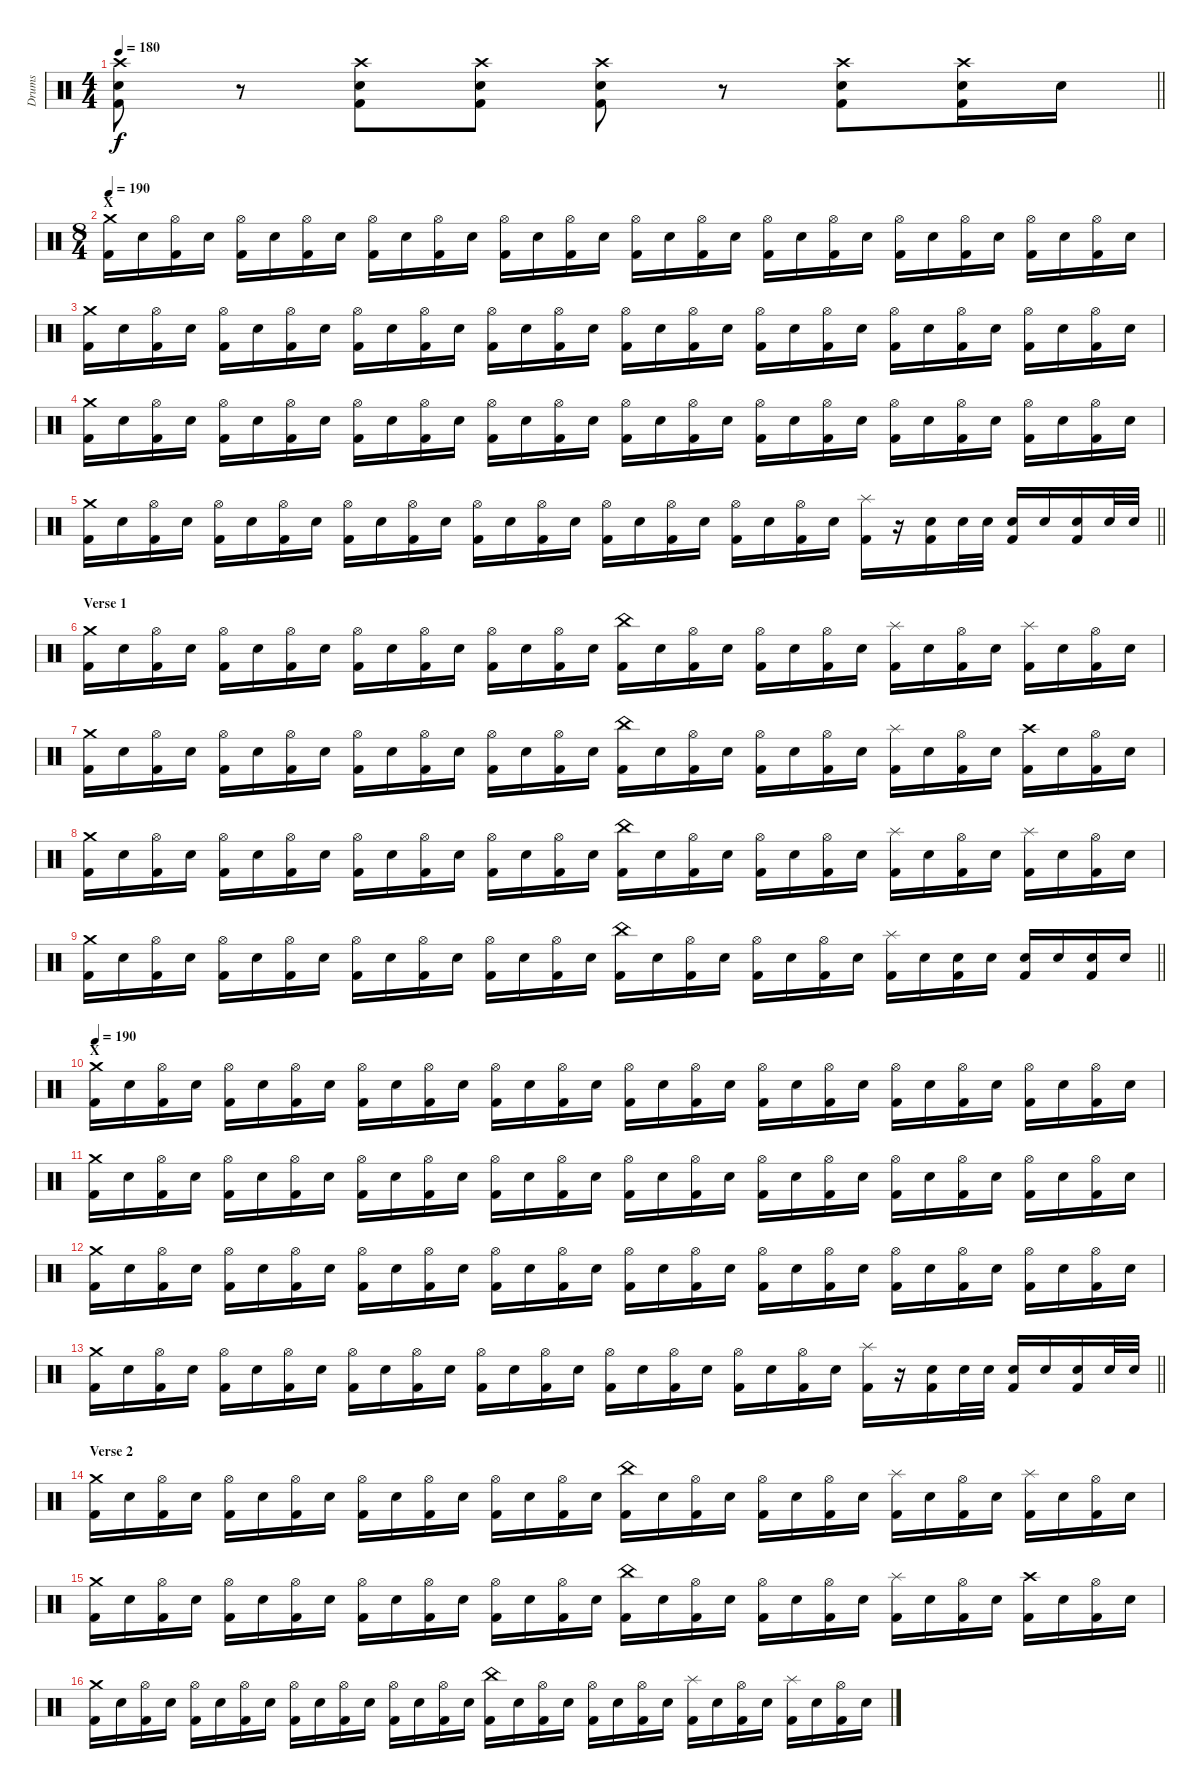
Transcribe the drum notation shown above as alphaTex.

\track ("Drums" "Drums") {instrument percussion}
\staff
\articulation defaults
\ts (4 4)
\tempo 180
\clef neutral
\barLineRight lightlight
\ks c
("Kick (hit) 2" "Electric Snare (hit)" "Crash high (hit)").8{dy f} r.8 ("Kick (hit) 2" "Electric Snare (hit)" "Crash high (hit)").8 ("Kick (hit) 2" "Electric Snare (hit)" "Crash high (hit)").8 ("Kick (hit) 2" "Electric Snare (hit)" "Crash high (hit)").8 r.8 ("Kick (hit) 2" "Electric Snare (hit)" "Crash high (hit)").8 ("Kick (hit) 2" "Electric Snare (hit)" "Crash high (hit)").16 "Electric Snare (hit)".16 |
\ts (8 4)
\section ("" "X")
\tempo 190
("Crash medium (hit)" "Kick (hit) 2").16 "Electric Snare (hit)".16 ("Hi-Hat (open)" "Kick (hit) 2").16 "Electric Snare (hit)".16 ("Hi-Hat (open)" "Kick (hit) 2").16 "Electric Snare (hit)".16 ("Hi-Hat (open)" "Kick (hit) 2").16 "Electric Snare (hit)".16 ("Hi-Hat (open)" "Kick (hit) 2").16 "Electric Snare (hit)".16 ("Hi-Hat (open)" "Kick (hit) 2").16 "Electric Snare (hit)".16 ("Hi-Hat (open)" "Kick (hit) 2").16 "Electric Snare (hit)".16 ("Hi-Hat (open)" "Kick (hit) 2").16 "Electric Snare (hit)".16 ("Hi-Hat (open)" "Kick (hit) 2").16 "Electric Snare (hit)".16 ("Hi-Hat (open)" "Kick (hit) 2").16 "Electric Snare (hit)".16 ("Hi-Hat (open)" "Kick (hit) 2").16 "Electric Snare (hit)".16 ("Hi-Hat (open)" "Kick (hit) 2").16 "Electric Snare (hit)".16 ("Hi-Hat (open)" "Kick (hit) 2").16 "Electric Snare (hit)".16 ("Hi-Hat (open)" "Kick (hit) 2").16 "Electric Snare (hit)".16 ("Hi-Hat (open)" "Kick (hit) 2").16 "Electric Snare (hit)".16 ("Hi-Hat (open)" "Kick (hit) 2").16 "Electric Snare (hit)".16 |
("Crash medium (hit)" "Kick (hit) 2").16 "Electric Snare (hit)".16 ("Hi-Hat (open)" "Kick (hit) 2").16 "Electric Snare (hit)".16 ("Hi-Hat (open)" "Kick (hit) 2").16 "Electric Snare (hit)".16 ("Hi-Hat (open)" "Kick (hit) 2").16 "Electric Snare (hit)".16 ("Hi-Hat (open)" "Kick (hit) 2").16 "Electric Snare (hit)".16 ("Hi-Hat (open)" "Kick (hit) 2").16 "Electric Snare (hit)".16 ("Hi-Hat (open)" "Kick (hit) 2").16 "Electric Snare (hit)".16 ("Hi-Hat (open)" "Kick (hit) 2").16 "Electric Snare (hit)".16 ("Hi-Hat (open)" "Kick (hit) 2").16 "Electric Snare (hit)".16 ("Hi-Hat (open)" "Kick (hit) 2").16 "Electric Snare (hit)".16 ("Hi-Hat (open)" "Kick (hit) 2").16 "Electric Snare (hit)".16 ("Hi-Hat (open)" "Kick (hit) 2").16 "Electric Snare (hit)".16 ("Hi-Hat (open)" "Kick (hit) 2").16 "Electric Snare (hit)".16 ("Hi-Hat (open)" "Kick (hit) 2").16 "Electric Snare (hit)".16 ("Hi-Hat (open)" "Kick (hit) 2").16 "Electric Snare (hit)".16 ("Hi-Hat (open)" "Kick (hit) 2").16 "Electric Snare (hit)".16 |
("Crash medium (hit)" "Kick (hit) 2").16 "Electric Snare (hit)".16 ("Hi-Hat (open)" "Kick (hit) 2").16 "Electric Snare (hit)".16 ("Hi-Hat (open)" "Kick (hit) 2").16 "Electric Snare (hit)".16 ("Hi-Hat (open)" "Kick (hit) 2").16 "Electric Snare (hit)".16 ("Hi-Hat (open)" "Kick (hit) 2").16 "Electric Snare (hit)".16 ("Hi-Hat (open)" "Kick (hit) 2").16 "Electric Snare (hit)".16 ("Hi-Hat (open)" "Kick (hit) 2").16 "Electric Snare (hit)".16 ("Hi-Hat (open)" "Kick (hit) 2").16 "Electric Snare (hit)".16 ("Hi-Hat (open)" "Kick (hit) 2").16 "Electric Snare (hit)".16 ("Hi-Hat (open)" "Kick (hit) 2").16 "Electric Snare (hit)".16 ("Hi-Hat (open)" "Kick (hit) 2").16 "Electric Snare (hit)".16 ("Hi-Hat (open)" "Kick (hit) 2").16 "Electric Snare (hit)".16 ("Hi-Hat (open)" "Kick (hit) 2").16 "Electric Snare (hit)".16 ("Hi-Hat (open)" "Kick (hit) 2").16 "Electric Snare (hit)".16 ("Hi-Hat (open)" "Kick (hit) 2").16 "Electric Snare (hit)".16 ("Hi-Hat (open)" "Kick (hit) 2").16 "Electric Snare (hit)".16 |
\barLineRight lightlight
("Crash medium (hit)" "Kick (hit) 2").16 "Electric Snare (hit)".16 ("Hi-Hat (open)" "Kick (hit) 2").16 "Electric Snare (hit)".16 ("Hi-Hat (open)" "Kick (hit) 2").16 "Electric Snare (hit)".16 ("Hi-Hat (open)" "Kick (hit) 2").16 "Electric Snare (hit)".16 ("Hi-Hat (open)" "Kick (hit) 2").16 "Electric Snare (hit)".16 ("Hi-Hat (open)" "Kick (hit) 2").16 "Electric Snare (hit)".16 ("Hi-Hat (open)" "Kick (hit) 2").16 "Electric Snare (hit)".16 ("Hi-Hat (open)" "Kick (hit) 2").16 "Electric Snare (hit)".16 ("Hi-Hat (open)" "Kick (hit) 2").16 "Electric Snare (hit)".16 ("Hi-Hat (open)" "Kick (hit) 2").16 "Electric Snare (hit)".16 ("Hi-Hat (open)" "Kick (hit) 2").16 "Electric Snare (hit)".16 ("Hi-Hat (open)" "Kick (hit) 2").16 "Electric Snare (hit)".16 ("Splash (hit)" "Kick (hit) 2").16 r.16 ("Electric Snare (hit)" "Kick (hit) 2").16 "Electric Snare (hit)".32 "Electric Snare (hit)".32 ("Electric Snare (hit)" "Kick (hit) 2").16 "Electric Snare (hit)".16 ("Electric Snare (hit)" "Kick (hit) 2").16 "Electric Snare (hit)".32 "Electric Snare (hit)".32 |
\section ("" "Verse 1")
("Crash medium (hit)" "Kick (hit) 2").16 "Electric Snare (hit)".16 ("Hi-Hat (open)" "Kick (hit) 2").16 "Electric Snare (hit)".16 ("Hi-Hat (open)" "Kick (hit) 2").16 "Electric Snare (hit)".16 ("Hi-Hat (open)" "Kick (hit) 2").16 "Electric Snare (hit)".16 ("Hi-Hat (open)" "Kick (hit) 2").16 "Electric Snare (hit)".16 ("Hi-Hat (open)" "Kick (hit) 2").16 "Electric Snare (hit)".16 ("Hi-Hat (open)" "Kick (hit) 2").16 "Electric Snare (hit)".16 ("Hi-Hat (open)" "Kick (hit) 2").16 "Electric Snare (hit)".16 ("China (hit)" "Kick (hit) 2").16 "Electric Snare (hit)".16 ("Hi-Hat (open)" "Kick (hit) 2").16 "Electric Snare (hit)".16 ("Hi-Hat (open)" "Kick (hit) 2").16 "Electric Snare (hit)".16 ("Hi-Hat (open)" "Kick (hit) 2").16 "Electric Snare (hit)".16 ("Splash (hit)" "Kick (hit) 2").16 "Electric Snare (hit)".16 ("Hi-Hat (open)" "Kick (hit) 2").16 "Electric Snare (hit)".16 ("Splash (hit)" "Kick (hit) 2").16 "Electric Snare (hit)".16 ("Hi-Hat (open)" "Kick (hit) 2").16 "Electric Snare (hit)".16 |
("Crash medium (hit)" "Kick (hit) 2").16 "Electric Snare (hit)".16 ("Hi-Hat (open)" "Kick (hit) 2").16 "Electric Snare (hit)".16 ("Hi-Hat (open)" "Kick (hit) 2").16 "Electric Snare (hit)".16 ("Hi-Hat (open)" "Kick (hit) 2").16 "Electric Snare (hit)".16 ("Hi-Hat (open)" "Kick (hit) 2").16 "Electric Snare (hit)".16 ("Hi-Hat (open)" "Kick (hit) 2").16 "Electric Snare (hit)".16 ("Hi-Hat (open)" "Kick (hit) 2").16 "Electric Snare (hit)".16 ("Hi-Hat (open)" "Kick (hit) 2").16 "Electric Snare (hit)".16 ("China (hit)" "Kick (hit) 2").16 "Electric Snare (hit)".16 ("Hi-Hat (open)" "Kick (hit) 2").16 "Electric Snare (hit)".16 ("Hi-Hat (open)" "Kick (hit) 2").16 "Electric Snare (hit)".16 ("Hi-Hat (open)" "Kick (hit) 2").16 "Electric Snare (hit)".16 ("Splash (hit)" "Kick (hit) 2").16 "Electric Snare (hit)".16 ("Hi-Hat (open)" "Kick (hit) 2").16 "Electric Snare (hit)".16 ("Crash high (hit)" "Kick (hit) 2").16 "Electric Snare (hit)".16 ("Hi-Hat (open)" "Kick (hit) 2").16 "Electric Snare (hit)".16 |
("Crash medium (hit)" "Kick (hit) 2").16 "Electric Snare (hit)".16 ("Hi-Hat (open)" "Kick (hit) 2").16 "Electric Snare (hit)".16 ("Hi-Hat (open)" "Kick (hit) 2").16 "Electric Snare (hit)".16 ("Hi-Hat (open)" "Kick (hit) 2").16 "Electric Snare (hit)".16 ("Hi-Hat (open)" "Kick (hit) 2").16 "Electric Snare (hit)".16 ("Hi-Hat (open)" "Kick (hit) 2").16 "Electric Snare (hit)".16 ("Hi-Hat (open)" "Kick (hit) 2").16 "Electric Snare (hit)".16 ("Hi-Hat (open)" "Kick (hit) 2").16 "Electric Snare (hit)".16 ("China (hit)" "Kick (hit) 2").16 "Electric Snare (hit)".16 ("Hi-Hat (open)" "Kick (hit) 2").16 "Electric Snare (hit)".16 ("Hi-Hat (open)" "Kick (hit) 2").16 "Electric Snare (hit)".16 ("Hi-Hat (open)" "Kick (hit) 2").16 "Electric Snare (hit)".16 ("Splash (hit)" "Kick (hit) 2").16 "Electric Snare (hit)".16 ("Hi-Hat (open)" "Kick (hit) 2").16 "Electric Snare (hit)".16 ("Splash (hit)" "Kick (hit) 2").16 "Electric Snare (hit)".16 ("Hi-Hat (open)" "Kick (hit) 2").16 "Electric Snare (hit)".16 |
\barLineRight lightlight
("Crash medium (hit)" "Kick (hit) 2").16 "Electric Snare (hit)".16 ("Hi-Hat (open)" "Kick (hit) 2").16 "Electric Snare (hit)".16 ("Hi-Hat (open)" "Kick (hit) 2").16 "Electric Snare (hit)".16 ("Hi-Hat (open)" "Kick (hit) 2").16 "Electric Snare (hit)".16 ("Hi-Hat (open)" "Kick (hit) 2").16 "Electric Snare (hit)".16 ("Hi-Hat (open)" "Kick (hit) 2").16 "Electric Snare (hit)".16 ("Hi-Hat (open)" "Kick (hit) 2").16 "Electric Snare (hit)".16 ("Hi-Hat (open)" "Kick (hit) 2").16 "Electric Snare (hit)".16 ("China (hit)" "Kick (hit) 2").16 "Electric Snare (hit)".16 ("Hi-Hat (open)" "Kick (hit) 2").16 "Electric Snare (hit)".16 ("Hi-Hat (open)" "Kick (hit) 2").16 "Electric Snare (hit)".16 ("Hi-Hat (open)" "Kick (hit) 2").16 "Electric Snare (hit)".16 ("Splash (hit)" "Kick (hit) 2").16 "Electric Snare (hit)".16 ("Electric Snare (hit)" "Kick (hit) 2").16 "Electric Snare (hit)".16 ("Electric Snare (hit)" "Kick (hit) 2").16 "Electric Snare (hit)".16 ("Electric Snare (hit)" "Kick (hit) 2").16 "Electric Snare (hit)".16 |
\section ("" "X")
\tempo 190
("Crash medium (hit)" "Kick (hit) 2").16 "Electric Snare (hit)".16 ("Hi-Hat (open)" "Kick (hit) 2").16 "Electric Snare (hit)".16 ("Hi-Hat (open)" "Kick (hit) 2").16 "Electric Snare (hit)".16 ("Hi-Hat (open)" "Kick (hit) 2").16 "Electric Snare (hit)".16 ("Hi-Hat (open)" "Kick (hit) 2").16 "Electric Snare (hit)".16 ("Hi-Hat (open)" "Kick (hit) 2").16 "Electric Snare (hit)".16 ("Hi-Hat (open)" "Kick (hit) 2").16 "Electric Snare (hit)".16 ("Hi-Hat (open)" "Kick (hit) 2").16 "Electric Snare (hit)".16 ("Hi-Hat (open)" "Kick (hit) 2").16 "Electric Snare (hit)".16 ("Hi-Hat (open)" "Kick (hit) 2").16 "Electric Snare (hit)".16 ("Hi-Hat (open)" "Kick (hit) 2").16 "Electric Snare (hit)".16 ("Hi-Hat (open)" "Kick (hit) 2").16 "Electric Snare (hit)".16 ("Hi-Hat (open)" "Kick (hit) 2").16 "Electric Snare (hit)".16 ("Hi-Hat (open)" "Kick (hit) 2").16 "Electric Snare (hit)".16 ("Hi-Hat (open)" "Kick (hit) 2").16 "Electric Snare (hit)".16 ("Hi-Hat (open)" "Kick (hit) 2").16 "Electric Snare (hit)".16 |
("Crash medium (hit)" "Kick (hit) 2").16 "Electric Snare (hit)".16 ("Hi-Hat (open)" "Kick (hit) 2").16 "Electric Snare (hit)".16 ("Hi-Hat (open)" "Kick (hit) 2").16 "Electric Snare (hit)".16 ("Hi-Hat (open)" "Kick (hit) 2").16 "Electric Snare (hit)".16 ("Hi-Hat (open)" "Kick (hit) 2").16 "Electric Snare (hit)".16 ("Hi-Hat (open)" "Kick (hit) 2").16 "Electric Snare (hit)".16 ("Hi-Hat (open)" "Kick (hit) 2").16 "Electric Snare (hit)".16 ("Hi-Hat (open)" "Kick (hit) 2").16 "Electric Snare (hit)".16 ("Hi-Hat (open)" "Kick (hit) 2").16 "Electric Snare (hit)".16 ("Hi-Hat (open)" "Kick (hit) 2").16 "Electric Snare (hit)".16 ("Hi-Hat (open)" "Kick (hit) 2").16 "Electric Snare (hit)".16 ("Hi-Hat (open)" "Kick (hit) 2").16 "Electric Snare (hit)".16 ("Hi-Hat (open)" "Kick (hit) 2").16 "Electric Snare (hit)".16 ("Hi-Hat (open)" "Kick (hit) 2").16 "Electric Snare (hit)".16 ("Hi-Hat (open)" "Kick (hit) 2").16 "Electric Snare (hit)".16 ("Hi-Hat (open)" "Kick (hit) 2").16 "Electric Snare (hit)".16 |
("Crash medium (hit)" "Kick (hit) 2").16 "Electric Snare (hit)".16 ("Hi-Hat (open)" "Kick (hit) 2").16 "Electric Snare (hit)".16 ("Hi-Hat (open)" "Kick (hit) 2").16 "Electric Snare (hit)".16 ("Hi-Hat (open)" "Kick (hit) 2").16 "Electric Snare (hit)".16 ("Hi-Hat (open)" "Kick (hit) 2").16 "Electric Snare (hit)".16 ("Hi-Hat (open)" "Kick (hit) 2").16 "Electric Snare (hit)".16 ("Hi-Hat (open)" "Kick (hit) 2").16 "Electric Snare (hit)".16 ("Hi-Hat (open)" "Kick (hit) 2").16 "Electric Snare (hit)".16 ("Hi-Hat (open)" "Kick (hit) 2").16 "Electric Snare (hit)".16 ("Hi-Hat (open)" "Kick (hit) 2").16 "Electric Snare (hit)".16 ("Hi-Hat (open)" "Kick (hit) 2").16 "Electric Snare (hit)".16 ("Hi-Hat (open)" "Kick (hit) 2").16 "Electric Snare (hit)".16 ("Hi-Hat (open)" "Kick (hit) 2").16 "Electric Snare (hit)".16 ("Hi-Hat (open)" "Kick (hit) 2").16 "Electric Snare (hit)".16 ("Hi-Hat (open)" "Kick (hit) 2").16 "Electric Snare (hit)".16 ("Hi-Hat (open)" "Kick (hit) 2").16 "Electric Snare (hit)".16 |
\barLineRight lightlight
("Crash medium (hit)" "Kick (hit) 2").16 "Electric Snare (hit)".16 ("Hi-Hat (open)" "Kick (hit) 2").16 "Electric Snare (hit)".16 ("Hi-Hat (open)" "Kick (hit) 2").16 "Electric Snare (hit)".16 ("Hi-Hat (open)" "Kick (hit) 2").16 "Electric Snare (hit)".16 ("Hi-Hat (open)" "Kick (hit) 2").16 "Electric Snare (hit)".16 ("Hi-Hat (open)" "Kick (hit) 2").16 "Electric Snare (hit)".16 ("Hi-Hat (open)" "Kick (hit) 2").16 "Electric Snare (hit)".16 ("Hi-Hat (open)" "Kick (hit) 2").16 "Electric Snare (hit)".16 ("Hi-Hat (open)" "Kick (hit) 2").16 "Electric Snare (hit)".16 ("Hi-Hat (open)" "Kick (hit) 2").16 "Electric Snare (hit)".16 ("Hi-Hat (open)" "Kick (hit) 2").16 "Electric Snare (hit)".16 ("Hi-Hat (open)" "Kick (hit) 2").16 "Electric Snare (hit)".16 ("Splash (hit)" "Kick (hit) 2").16 r.16 ("Electric Snare (hit)" "Kick (hit) 2").16 "Electric Snare (hit)".32 "Electric Snare (hit)".32 ("Electric Snare (hit)" "Kick (hit) 2").16 "Electric Snare (hit)".16 ("Electric Snare (hit)" "Kick (hit) 2").16 "Electric Snare (hit)".32 "Electric Snare (hit)".32 |
\section ("" "Verse 2")
("Crash medium (hit)" "Kick (hit) 2").16 "Electric Snare (hit)".16 ("Hi-Hat (open)" "Kick (hit) 2").16 "Electric Snare (hit)".16 ("Hi-Hat (open)" "Kick (hit) 2").16 "Electric Snare (hit)".16 ("Hi-Hat (open)" "Kick (hit) 2").16 "Electric Snare (hit)".16 ("Hi-Hat (open)" "Kick (hit) 2").16 "Electric Snare (hit)".16 ("Hi-Hat (open)" "Kick (hit) 2").16 "Electric Snare (hit)".16 ("Hi-Hat (open)" "Kick (hit) 2").16 "Electric Snare (hit)".16 ("Hi-Hat (open)" "Kick (hit) 2").16 "Electric Snare (hit)".16 ("China (hit)" "Kick (hit) 2").16 "Electric Snare (hit)".16 ("Hi-Hat (open)" "Kick (hit) 2").16 "Electric Snare (hit)".16 ("Hi-Hat (open)" "Kick (hit) 2").16 "Electric Snare (hit)".16 ("Hi-Hat (open)" "Kick (hit) 2").16 "Electric Snare (hit)".16 ("Splash (hit)" "Kick (hit) 2").16 "Electric Snare (hit)".16 ("Hi-Hat (open)" "Kick (hit) 2").16 "Electric Snare (hit)".16 ("Splash (hit)" "Kick (hit) 2").16 "Electric Snare (hit)".16 ("Hi-Hat (open)" "Kick (hit) 2").16 "Electric Snare (hit)".16 |
("Crash medium (hit)" "Kick (hit) 2").16 "Electric Snare (hit)".16 ("Hi-Hat (open)" "Kick (hit) 2").16 "Electric Snare (hit)".16 ("Hi-Hat (open)" "Kick (hit) 2").16 "Electric Snare (hit)".16 ("Hi-Hat (open)" "Kick (hit) 2").16 "Electric Snare (hit)".16 ("Hi-Hat (open)" "Kick (hit) 2").16 "Electric Snare (hit)".16 ("Hi-Hat (open)" "Kick (hit) 2").16 "Electric Snare (hit)".16 ("Hi-Hat (open)" "Kick (hit) 2").16 "Electric Snare (hit)".16 ("Hi-Hat (open)" "Kick (hit) 2").16 "Electric Snare (hit)".16 ("China (hit)" "Kick (hit) 2").16 "Electric Snare (hit)".16 ("Hi-Hat (open)" "Kick (hit) 2").16 "Electric Snare (hit)".16 ("Hi-Hat (open)" "Kick (hit) 2").16 "Electric Snare (hit)".16 ("Hi-Hat (open)" "Kick (hit) 2").16 "Electric Snare (hit)".16 ("Splash (hit)" "Kick (hit) 2").16 "Electric Snare (hit)".16 ("Hi-Hat (open)" "Kick (hit) 2").16 "Electric Snare (hit)".16 ("Crash high (hit)" "Kick (hit) 2").16 "Electric Snare (hit)".16 ("Hi-Hat (open)" "Kick (hit) 2").16 "Electric Snare (hit)".16 |
("Crash medium (hit)" "Kick (hit) 2").16 "Electric Snare (hit)".16 ("Hi-Hat (open)" "Kick (hit) 2").16 "Electric Snare (hit)".16 ("Hi-Hat (open)" "Kick (hit) 2").16 "Electric Snare (hit)".16 ("Hi-Hat (open)" "Kick (hit) 2").16 "Electric Snare (hit)".16 ("Hi-Hat (open)" "Kick (hit) 2").16 "Electric Snare (hit)".16 ("Hi-Hat (open)" "Kick (hit) 2").16 "Electric Snare (hit)".16 ("Hi-Hat (open)" "Kick (hit) 2").16 "Electric Snare (hit)".16 ("Hi-Hat (open)" "Kick (hit) 2").16 "Electric Snare (hit)".16 ("China (hit)" "Kick (hit) 2").16 "Electric Snare (hit)".16 ("Hi-Hat (open)" "Kick (hit) 2").16 "Electric Snare (hit)".16 ("Hi-Hat (open)" "Kick (hit) 2").16 "Electric Snare (hit)".16 ("Hi-Hat (open)" "Kick (hit) 2").16 "Electric Snare (hit)".16 ("Splash (hit)" "Kick (hit) 2").16 "Electric Snare (hit)".16 ("Hi-Hat (open)" "Kick (hit) 2").16 "Electric Snare (hit)".16 ("Splash (hit)" "Kick (hit) 2").16 "Electric Snare (hit)".16 ("Hi-Hat (open)" "Kick (hit) 2").16 "Electric Snare (hit)".16
